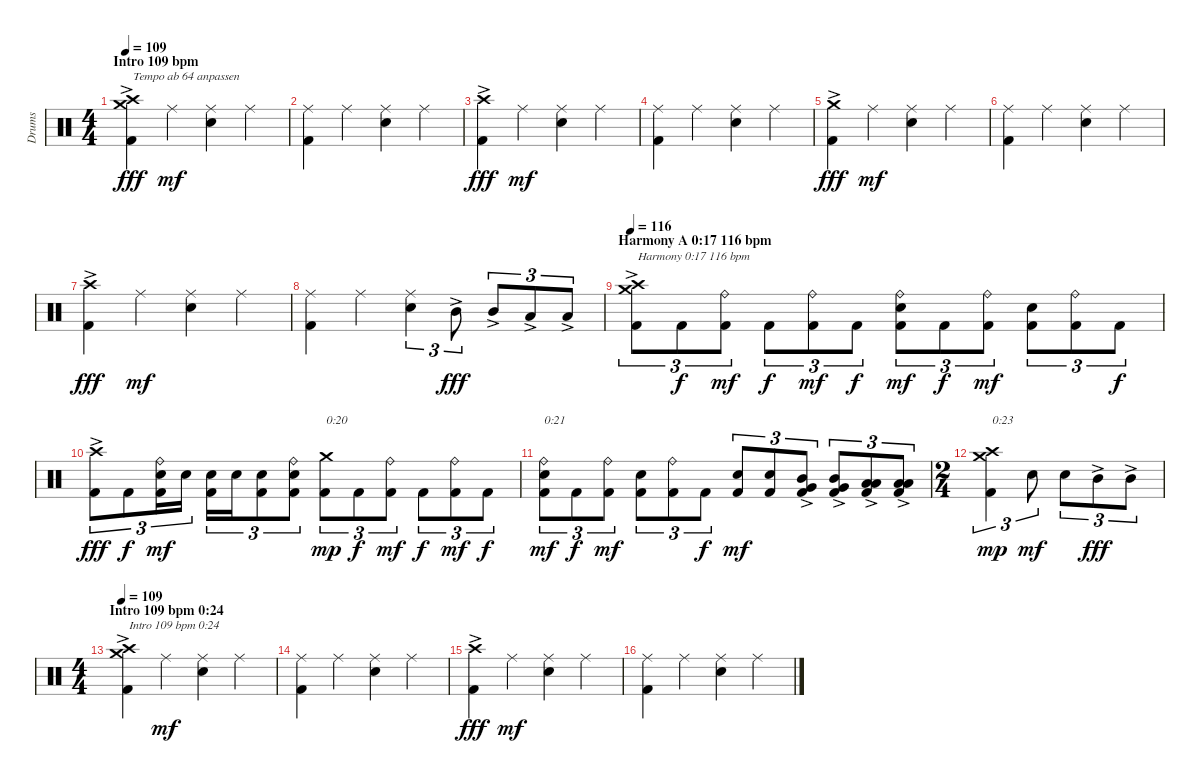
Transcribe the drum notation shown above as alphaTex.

\track ("Drums" "Drums") {instrument percussion}
\staff {score}
\articulation defaults
\ts (4 4)
\section ("" "Intro 109 bpm")
\tempo 109
\clef neutral
\ks c
("Kick (hit) 2" "Crash high (hit)"{ac} "Crash medium (hit)"{ac}).4{txt "Tempo ab 64 anpassen" dy fff} "Ride (middle)".4{dy mf} ("Electric Snare (hit)" "Ride (middle)").4 "Ride (middle)".4 |
("Kick (hit) 2" "Ride (middle)").4 "Ride (middle)".4 ("Electric Snare (hit)" "Ride (middle)").4 "Ride (middle)".4 |
("Kick (hit) 2" "Crash high (hit)"{ac}).4{dy fff} "Ride (middle)".4{dy mf} ("Electric Snare (hit)" "Ride (middle)").4 "Ride (middle)".4 |
("Kick (hit) 2" "Ride (middle)").4 "Ride (middle)".4 ("Electric Snare (hit)" "Ride (middle)").4 "Ride (middle)".4 |
("Kick (hit) 2" "Crash medium (hit)"{ac}).4{dy fff} "Ride (middle)".4{dy mf} ("Electric Snare (hit)" "Ride (middle)").4 "Ride (middle)".4 |
("Kick (hit) 2" "Ride (middle)").4 "Ride (middle)".4 ("Electric Snare (hit)" "Ride (middle)").4 "Ride (middle)".4 |
("Kick (hit) 2" "Crash high (hit)"{ac}).4{dy fff} "Ride (middle)".4{dy mf} ("Electric Snare (hit)" "Ride (middle)").4 "Ride (middle)".4 |
("Kick (hit) 2" "Ride (middle)").4 "Ride (middle)".4 ("Electric Snare (hit)" "Ride (middle)").4{tu (3 2)} "Mid Tom (hit)"{ac}.8{tu (3 2) dy fff} "Mid Tom (hit)"{ac}.8{tu (3 2)} "Low Tom (hit)"{ac}.8{tu (3 2)} "Low Tom (hit)"{ac}.8{tu (3 2)} |
\section ("" "Harmony A 0:17 116 bpm")
\tempo 116
("Kick (hit) 2" "Crash medium (hit)"{ac} "Crash high (hit)"{ac}).8{tu (3 2) txt "Harmony 0:17 116 bpm"} "Kick (hit) 2".8{tu (3 2) dy f} ("Kick (hit) 2" "Ride (bell)").8{tu (3 2) dy mf} "Kick (hit) 2".8{tu (3 2) dy f} ("Kick (hit) 2" "Ride (bell)").8{tu (3 2) dy mf} "Kick (hit) 2".8{tu (3 2) dy f} ("Kick (hit) 2" "Electric Snare (hit)" "Ride (bell)").8{tu (3 2) dy mf} "Kick (hit) 2".8{tu (3 2) dy f} ("Kick (hit) 2" "Ride (bell)").8{tu (3 2) dy mf} ("Kick (hit) 2" "Electric Snare (hit)").8{tu (3 2)} ("Kick (hit) 2" "Ride (bell)").8{tu (3 2)} "Kick (hit) 2".8{tu (3 2) dy f} |
("Kick (hit) 2" "Crash high (hit)"{ac}).8{tu (3 2) dy fff} "Kick (hit) 2".8{tu (3 2) dy f} ("Kick (hit) 2" "Electric Snare (hit)" "Ride (bell)").16{tu (3 2) dy mf} "Electric Snare (hit)".16{tu (3 2)} ("Kick (hit) 2" "Electric Snare (hit)").16{tu (3 2)} "Electric Snare (hit)".16{tu (3 2)} ("Kick (hit) 2" "Electric Snare (hit)").8{tu (3 2)} ("Kick (hit) 2" "Electric Snare (hit)" "Ride (bell)").8{tu (3 2)} ("Kick (hit) 2" "Crash medium (hit)").8{tu (3 2) txt "0:20" dy mp} "Kick (hit) 2".8{tu (3 2) dy f} ("Kick (hit) 2" "Ride (bell)").8{tu (3 2) dy mf} "Kick (hit) 2".8{tu (3 2) dy f} ("Kick (hit) 2" "Ride (bell)").8{tu (3 2) dy mf} "Kick (hit) 2".8{tu (3 2) dy f} |
("Kick (hit) 2" "Electric Snare (hit)" "Ride (bell)").8{tu (3 2) txt "0:21" dy mf} "Kick (hit) 2".8{tu (3 2) dy f} ("Kick (hit) 2" "Ride (bell)").8{tu (3 2) dy mf} ("Kick (hit) 2" "Electric Snare (hit)").8{tu (3 2)} ("Kick (hit) 2" "Ride (bell)").8{tu (3 2)} "Kick (hit) 2".8{tu (3 2) dy f} ("Kick (hit) 2" "Electric Snare (hit)").8{tu (3 2) dy mf} ("Kick (hit) 2" "Electric Snare (hit)").8{tu (3 2)} ("Kick (hit) 2" "Mid Tom (hit)"{ac} "Very Low Tom (hit)").8{tu (3 2)} ("Kick (hit) 2" "Mid Tom (hit)"{ac} "Very Low Tom (hit)").8{tu (3 2)} ("Kick (hit) 2" "Low Tom (hit)"{ac} "Low Floor Tom (hit)"{ac}).8{tu (3 2)} ("Kick (hit) 2" "Low Tom (hit)"{ac} "Low Floor Tom (hit)"{ac}).8{tu (3 2)} |
\ts (2 4)
("Kick (hit) 2" "Crash high (hit)" "Crash medium (hit)").4{tu (3 2) txt "0:23" dy mp} "Electric Snare (hit)".8{tu (3 2) dy mf} "Electric Snare (hit)".8{tu (3 2)} "Mid Tom (hit)"{ac}.8{tu (3 2) dy fff} "Mid Tom (hit)"{ac}.8{tu (3 2)} |
\ts (4 4)
\section ("" "Intro 109 bpm 0:24")
\tempo 109
("Kick (hit) 2" "Crash high (hit)"{ac} "Crash medium (hit)"{ac}).4{txt "Intro 109 bpm 0:24"} "Ride (middle)".4{dy mf} ("Electric Snare (hit)" "Ride (middle)").4 "Ride (middle)".4 |
("Kick (hit) 2" "Ride (middle)").4 "Ride (middle)".4 ("Electric Snare (hit)" "Ride (middle)").4 "Ride (middle)".4 |
("Kick (hit) 2" "Crash high (hit)"{ac}).4{dy fff} "Ride (middle)".4{dy mf} ("Electric Snare (hit)" "Ride (middle)").4 "Ride (middle)".4 |
("Kick (hit) 2" "Ride (middle)").4 "Ride (middle)".4 ("Electric Snare (hit)" "Ride (middle)").4 "Ride (middle)".4
